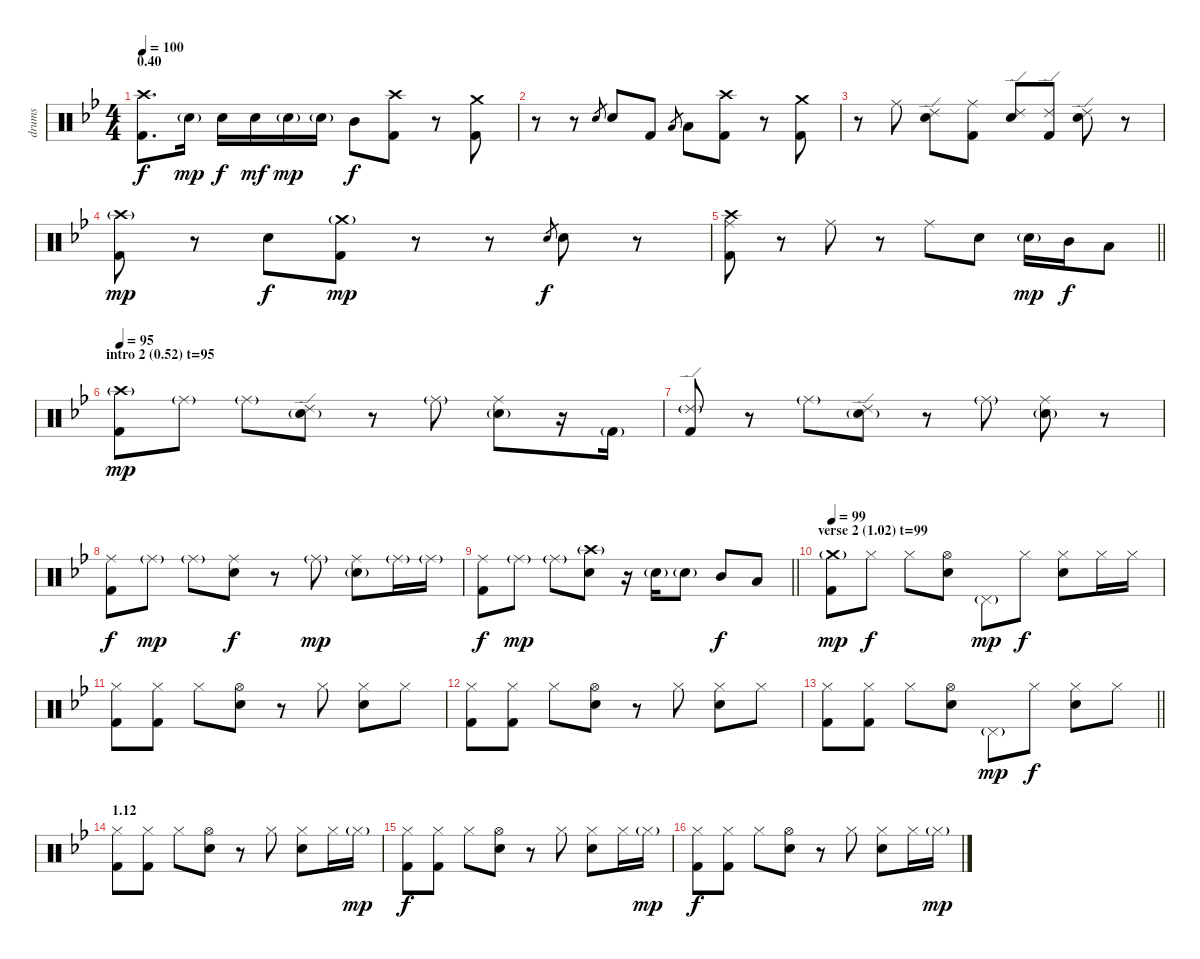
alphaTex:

\track ("drums" "drums") {instrument percussion}
\staff {score}
\articulation defaults
\ts (4 4)
\section ("" "0.40")
\tempo 100
\clef neutral
\ks bb
("Crash high (hit)" "Kick (hit) 2").8{d dy f} "Electric Snare (hit)"{g}.16{dy mp} "Electric Snare (hit)".16{dy f} "Electric Snare (hit)".16{dy mf} "Electric Snare (hit)"{g}.16{dy mp} "Electric Snare (hit)"{g}.16 "Mid Tom (hit)".8{dy f} ("Crash high (hit)" "Kick (hit) 2").8 r.8 ("Crash medium (hit)" "Kick (hit) 2").8 |
r.8 r.8 "Electric Snare (hit)".8{gr} "Electric Snare (hit)".8 "Kick (hit) 2".8 "Low Tom (hit)".8{gr} "Low Tom (hit)".8 ("Crash high (hit)" "Kick (hit) 2").8 r.8 ("Crash medium (hit)" "Kick (hit) 2").8 |
r.8 "Ride (middle)".8 ("Ride (edge) 2" "Electric Snare (hit)").8 ("Ride (middle)" "Kick (hit) 2").8 ("Ride (edge) 2" "Electric Snare (hit)").8 ("Ride (edge) 2" "Kick (hit) 2").8 ("Ride (edge) 2" "Electric Snare (hit)").8 r.8 |
("Crash high (hit)"{g} "Kick (hit) 2").8{dy mp} r.8 "Electric Snare (hit)".8{dy f} ("Crash medium (hit)"{g} "Kick (hit) 2").8{dy mp} r.8 r.8 "Electric Snare (hit)".8{gr dy f} "Electric Snare (hit)".8 r.8 |
\barLineRight lightlight
("Ride (middle)" "Crash high (hit)" "Kick (hit) 2").8 r.8 "Ride (middle)".8 r.8 "Ride (middle)".8 "Electric Snare (hit)".8 "Electric Snare (hit)"{g}.16{dy mp} "Mid Tom (hit)".16{dy f} "Low Tom (hit)".8 |
\section ("" "intro 2 (0.52) t=95")
\tempo 95
("Crash high (hit)"{g} "Kick (hit) 2").8{dy mp} "Ride (middle)"{g}.8 "Ride (middle)"{g}.8 ("Ride (edge) 2" "Electric Snare (hit)"{g}).8 r.8 "Ride (middle)"{g}.8 ("Ride (middle)" "Electric Snare (hit)"{g}).8 r.16 "Kick (hit) 2"{g}.16 |
("Ride (edge) 2"{g} "Kick (hit) 2").8 r.8 "Ride (middle)"{g}.8 ("Ride (edge) 2" "Electric Snare (hit)"{g}).8 r.8 "Ride (middle)"{g}.8 ("Ride (middle)" "Electric Snare (hit)"{g}).8 r.8 |
("Ride (middle)" "Kick (hit) 2").8{dy f} "Ride (middle)"{g}.8{dy mp} "Ride (middle)"{g}.8 ("Ride (middle)" "Electric Snare (hit)").8{dy f} r.8 "Ride (middle)"{g}.8{dy mp} ("Ride (middle)" "Electric Snare (hit)"{g}).8 "Ride (middle)"{g}.16 "Ride (middle)"{g}.16 |
\barLineRight lightlight
("Ride (middle)" "Kick (hit) 2").8{dy f} "Ride (middle)"{g}.8{dy mp} "Ride (middle)"{g}.8 ("Crash high (hit)"{g} "Electric Snare (hit)").8 r.16 "Electric Snare (hit)"{g}.16 "Electric Snare (hit)"{g}.8 "Mid Tom (hit)".8{dy f} "Low Tom (hit)".8 |
\section ("" "verse 2 (1.02) t=99")
\tempo 99
("Crash medium (hit)"{g} "Kick (hit) 2").8{dy mp} "Hi-Hat (closed)".8{dy f} "Hi-Hat (closed)".8 ("Hi-Hat (open)" "Electric Snare (hit)").8 "Pedal Hi-Hat (hit)"{g}.8{dy mp} "Hi-Hat (closed)".8{dy f} ("Hi-Hat (closed)" "Electric Snare (hit)").8 "Hi-Hat (closed)".16 "Hi-Hat (closed)".16 |
("Hi-Hat (closed)" "Kick (hit) 2").8 ("Hi-Hat (closed)" "Kick (hit) 2").8 "Hi-Hat (closed)".8 ("Hi-Hat (open)" "Electric Snare (hit)").8 r.8 "Hi-Hat (closed)".8 ("Hi-Hat (closed)" "Electric Snare (hit)").8 "Hi-Hat (closed)".8 |
("Hi-Hat (closed)" "Kick (hit) 2").8 ("Hi-Hat (closed)" "Kick (hit) 2").8 "Hi-Hat (closed)".8 ("Hi-Hat (open)" "Electric Snare (hit)").8 r.8 "Hi-Hat (closed)".8 ("Hi-Hat (closed)" "Electric Snare (hit)").8 "Hi-Hat (closed)".8 |
\barLineRight lightlight
("Hi-Hat (closed)" "Kick (hit) 2").8 ("Hi-Hat (closed)" "Kick (hit) 2").8 "Hi-Hat (closed)".8 ("Hi-Hat (open)" "Electric Snare (hit)").8 "Pedal Hi-Hat (hit)"{g}.8{dy mp} "Hi-Hat (closed)".8{dy f} ("Hi-Hat (closed)" "Electric Snare (hit)").8 "Hi-Hat (closed)".8 |
\section ("" "1.12")
("Hi-Hat (closed)" "Kick (hit) 2").8 ("Hi-Hat (closed)" "Kick (hit) 2").8 "Hi-Hat (closed)".8 ("Hi-Hat (open)" "Electric Snare (hit)").8 r.8 "Hi-Hat (closed)".8 ("Hi-Hat (closed)" "Electric Snare (hit)").8 "Hi-Hat (closed)".16 "Hi-Hat (closed)"{g}.16{dy mp} |
("Hi-Hat (closed)" "Kick (hit) 2").8{dy f} ("Hi-Hat (closed)" "Kick (hit) 2").8 "Hi-Hat (closed)".8 ("Hi-Hat (open)" "Electric Snare (hit)").8 r.8 "Hi-Hat (closed)".8 ("Hi-Hat (closed)" "Electric Snare (hit)").8 "Hi-Hat (closed)".16 "Hi-Hat (closed)"{g}.16{dy mp} |
("Hi-Hat (closed)" "Kick (hit) 2").8{dy f} ("Hi-Hat (closed)" "Kick (hit) 2").8 "Hi-Hat (closed)".8 ("Hi-Hat (open)" "Electric Snare (hit)").8 r.8 "Hi-Hat (closed)".8 ("Hi-Hat (closed)" "Electric Snare (hit)").8 "Hi-Hat (closed)".16 "Hi-Hat (closed)"{g}.16{dy mp}
